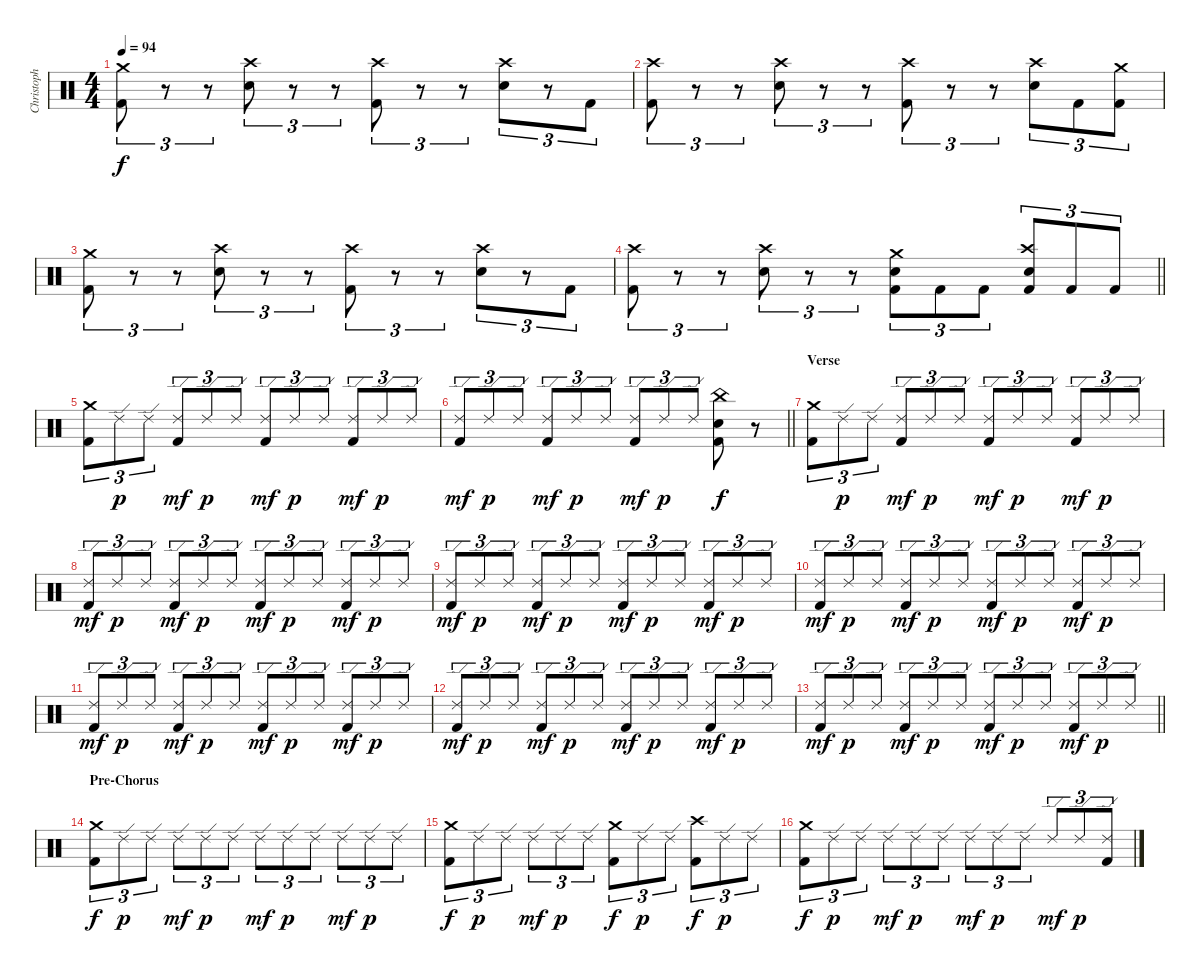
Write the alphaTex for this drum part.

\track ("Christoph Schneider [Drums]" "Christoph ") {instrument percussion}
\staff {score}
\articulation defaults
\ts (4 4)
\tempo 94
\clef neutral
\ks c
("Crash medium (hit)" "Kick (hit) 2").8{tu (3 2) dy f} r.8{tu (3 2)} r.8{tu (3 2)} ("Crash high (hit)" "Electric Snare (hit)").8{tu (3 2)} r.8{tu (3 2)} r.8{tu (3 2)} ("Crash high (hit)" "Kick (hit) 2").8{tu (3 2)} r.8{tu (3 2)} r.8{tu (3 2)} ("Crash high (hit)" "Electric Snare (hit)").8{tu (3 2)} r.8{tu (3 2)} "Kick (hit) 2".8{tu (3 2)} |
("Crash high (hit)" "Kick (hit) 2").8{tu (3 2)} r.8{tu (3 2)} r.8{tu (3 2)} ("Crash high (hit)" "Electric Snare (hit)").8{tu (3 2)} r.8{tu (3 2)} r.8{tu (3 2)} ("Crash high (hit)" "Kick (hit) 2").8{tu (3 2)} r.8{tu (3 2)} r.8{tu (3 2)} ("Crash high (hit)" "Electric Snare (hit)").8{tu (3 2)} "Kick (hit) 2".8{tu (3 2)} ("Crash medium (hit)" "Kick (hit) 2").8{tu (3 2)} |
("Crash medium (hit)" "Kick (hit) 2").8{tu (3 2)} r.8{tu (3 2)} r.8{tu (3 2)} ("Crash high (hit)" "Electric Snare (hit)").8{tu (3 2)} r.8{tu (3 2)} r.8{tu (3 2)} ("Crash high (hit)" "Kick (hit) 2").8{tu (3 2)} r.8{tu (3 2)} r.8{tu (3 2)} ("Crash high (hit)" "Electric Snare (hit)").8{tu (3 2)} r.8{tu (3 2)} "Kick (hit) 2".8{tu (3 2)} |
\barLineRight lightlight
("Crash high (hit)" "Kick (hit) 2").8{tu (3 2)} r.8{tu (3 2)} r.8{tu (3 2)} ("Crash high (hit)" "Electric Snare (hit)").8{tu (3 2)} r.8{tu (3 2)} r.8{tu (3 2)} ("Crash medium (hit)" "Electric Snare (hit)" "Kick (hit) 2").8{tu (3 2)} "Kick (hit) 2".8{tu (3 2)} "Kick (hit) 2".8{tu (3 2)} ("Crash high (hit)" "Electric Snare (hit)" "Kick (hit) 2").8{tu (3 2)} "Kick (hit) 2".8{tu (3 2)} "Kick (hit) 2".8{tu (3 2)} |
\section ("" "")
("Crash medium (hit)" "Kick (hit) 2").8{tu (3 2)} "Ride (edge) 2".8{tu (3 2) dy p} "Ride (edge) 2".8{tu (3 2)} ("Ride (edge) 2" "Kick (hit) 2").8{tu (3 2) dy mf} "Ride (edge) 2".8{tu (3 2) dy p} "Ride (edge) 2".8{tu (3 2)} ("Ride (edge) 2" "Kick (hit) 2").8{tu (3 2) dy mf} "Ride (edge) 2".8{tu (3 2) dy p} "Ride (edge) 2".8{tu (3 2)} ("Ride (edge) 2" "Kick (hit) 2").8{tu (3 2) dy mf} "Ride (edge) 2".8{tu (3 2) dy p} "Ride (edge) 2".8{tu (3 2)} |
\barLineRight lightlight
("Ride (edge) 2" "Kick (hit) 2").8{tu (3 2) dy mf} "Ride (edge) 2".8{tu (3 2) dy p} "Ride (edge) 2".8{tu (3 2)} ("Ride (edge) 2" "Kick (hit) 2").8{tu (3 2) dy mf} "Ride (edge) 2".8{tu (3 2) dy p} "Ride (edge) 2".8{tu (3 2)} ("Ride (edge) 2" "Kick (hit) 2").8{tu (3 2) dy mf} "Ride (edge) 2".8{tu (3 2) dy p} "Ride (edge) 2".8{tu (3 2)} ("China (hit)" "Electric Snare (hit)" "Kick (hit) 2").8{dy f} r.8 |
\section ("" "Verse")
("Crash medium (hit)" "Kick (hit) 2").8{tu (3 2)} "Ride (edge) 2".8{tu (3 2) dy p} "Ride (edge) 2".8{tu (3 2)} ("Ride (edge) 2" "Kick (hit) 2").8{tu (3 2) dy mf} "Ride (edge) 2".8{tu (3 2) dy p} "Ride (edge) 2".8{tu (3 2)} ("Ride (edge) 2" "Kick (hit) 2").8{tu (3 2) dy mf} "Ride (edge) 2".8{tu (3 2) dy p} "Ride (edge) 2".8{tu (3 2)} ("Ride (edge) 2" "Kick (hit) 2").8{tu (3 2) dy mf} "Ride (edge) 2".8{tu (3 2) dy p} "Ride (edge) 2".8{tu (3 2)} |
("Ride (edge) 2" "Kick (hit) 2").8{tu (3 2) dy mf} "Ride (edge) 2".8{tu (3 2) dy p} "Ride (edge) 2".8{tu (3 2)} ("Ride (edge) 2" "Kick (hit) 2").8{tu (3 2) dy mf} "Ride (edge) 2".8{tu (3 2) dy p} "Ride (edge) 2".8{tu (3 2)} ("Ride (edge) 2" "Kick (hit) 2").8{tu (3 2) dy mf} "Ride (edge) 2".8{tu (3 2) dy p} "Ride (edge) 2".8{tu (3 2)} ("Ride (edge) 2" "Kick (hit) 2").8{tu (3 2) dy mf} "Ride (edge) 2".8{tu (3 2) dy p} "Ride (edge) 2".8{tu (3 2)} |
("Ride (edge) 2" "Kick (hit) 2").8{tu (3 2) dy mf} "Ride (edge) 2".8{tu (3 2) dy p} "Ride (edge) 2".8{tu (3 2)} ("Ride (edge) 2" "Kick (hit) 2").8{tu (3 2) dy mf} "Ride (edge) 2".8{tu (3 2) dy p} "Ride (edge) 2".8{tu (3 2)} ("Ride (edge) 2" "Kick (hit) 2").8{tu (3 2) dy mf} "Ride (edge) 2".8{tu (3 2) dy p} "Ride (edge) 2".8{tu (3 2)} ("Ride (edge) 2" "Kick (hit) 2").8{tu (3 2) dy mf} "Ride (edge) 2".8{tu (3 2) dy p} "Ride (edge) 2".8{tu (3 2)} |
("Ride (edge) 2" "Kick (hit) 2").8{tu (3 2) dy mf} "Ride (edge) 2".8{tu (3 2) dy p} "Ride (edge) 2".8{tu (3 2)} ("Ride (edge) 2" "Kick (hit) 2").8{tu (3 2) dy mf} "Ride (edge) 2".8{tu (3 2) dy p} "Ride (edge) 2".8{tu (3 2)} ("Ride (edge) 2" "Kick (hit) 2").8{tu (3 2) dy mf} "Ride (edge) 2".8{tu (3 2) dy p} "Ride (edge) 2".8{tu (3 2)} ("Ride (edge) 2" "Kick (hit) 2").8{tu (3 2) dy mf} "Ride (edge) 2".8{tu (3 2) dy p} "Ride (edge) 2".8{tu (3 2)} |
("Ride (edge) 2" "Kick (hit) 2").8{tu (3 2) dy mf} "Ride (edge) 2".8{tu (3 2) dy p} "Ride (edge) 2".8{tu (3 2)} ("Ride (edge) 2" "Kick (hit) 2").8{tu (3 2) dy mf} "Ride (edge) 2".8{tu (3 2) dy p} "Ride (edge) 2".8{tu (3 2)} ("Ride (edge) 2" "Kick (hit) 2").8{tu (3 2) dy mf} "Ride (edge) 2".8{tu (3 2) dy p} "Ride (edge) 2".8{tu (3 2)} ("Ride (edge) 2" "Kick (hit) 2").8{tu (3 2) dy mf} "Ride (edge) 2".8{tu (3 2) dy p} "Ride (edge) 2".8{tu (3 2)} |
("Ride (edge) 2" "Kick (hit) 2").8{tu (3 2) dy mf} "Ride (edge) 2".8{tu (3 2) dy p} "Ride (edge) 2".8{tu (3 2)} ("Ride (edge) 2" "Kick (hit) 2").8{tu (3 2) dy mf} "Ride (edge) 2".8{tu (3 2) dy p} "Ride (edge) 2".8{tu (3 2)} ("Ride (edge) 2" "Kick (hit) 2").8{tu (3 2) dy mf} "Ride (edge) 2".8{tu (3 2) dy p} "Ride (edge) 2".8{tu (3 2)} ("Ride (edge) 2" "Kick (hit) 2").8{tu (3 2) dy mf} "Ride (edge) 2".8{tu (3 2) dy p} "Ride (edge) 2".8{tu (3 2)} |
\barLineRight lightlight
("Ride (edge) 2" "Kick (hit) 2").8{tu (3 2) dy mf} "Ride (edge) 2".8{tu (3 2) dy p} "Ride (edge) 2".8{tu (3 2)} ("Ride (edge) 2" "Kick (hit) 2").8{tu (3 2) dy mf} "Ride (edge) 2".8{tu (3 2) dy p} "Ride (edge) 2".8{tu (3 2)} ("Ride (edge) 2" "Kick (hit) 2").8{tu (3 2) dy mf} "Ride (edge) 2".8{tu (3 2) dy p} "Ride (edge) 2".8{tu (3 2)} ("Ride (edge) 2" "Kick (hit) 2").8{tu (3 2) dy mf} "Ride (edge) 2".8{tu (3 2) dy p} "Ride (edge) 2".8{tu (3 2)} |
\section ("" "Pre-Chorus")
("Crash medium (hit)" "Kick (hit) 2").8{tu (3 2) dy f} "Ride (edge) 2".8{tu (3 2) dy p} "Ride (edge) 2".8{tu (3 2)} "Ride (edge) 2".8{tu (3 2) dy mf} "Ride (edge) 2".8{tu (3 2) dy p} "Ride (edge) 2".8{tu (3 2)} "Ride (edge) 2".8{tu (3 2) dy mf} "Ride (edge) 2".8{tu (3 2) dy p} "Ride (edge) 2".8{tu (3 2)} "Ride (edge) 2".8{tu (3 2) dy mf} "Ride (edge) 2".8{tu (3 2) dy p} "Ride (edge) 2".8{tu (3 2)} |
("Crash medium (hit)" "Kick (hit) 2").8{tu (3 2) dy f} "Ride (edge) 2".8{tu (3 2) dy p} "Ride (edge) 2".8{tu (3 2)} "Ride (edge) 2".8{tu (3 2) dy mf} "Ride (edge) 2".8{tu (3 2) dy p} "Ride (edge) 2".8{tu (3 2)} ("Crash medium (hit)" "Kick (hit) 2").8{tu (3 2) dy f} "Ride (edge) 2".8{tu (3 2) dy p} "Ride (edge) 2".8{tu (3 2)} ("Crash high (hit)" "Kick (hit) 2").8{tu (3 2) dy f} "Ride (edge) 2".8{tu (3 2) dy p} "Ride (edge) 2".8{tu (3 2)} |
("Crash medium (hit)" "Kick (hit) 2").8{tu (3 2) dy f} "Ride (edge) 2".8{tu (3 2) dy p} "Ride (edge) 2".8{tu (3 2)} "Ride (edge) 2".8{tu (3 2) dy mf} "Ride (edge) 2".8{tu (3 2) dy p} "Ride (edge) 2".8{tu (3 2)} "Ride (edge) 2".8{tu (3 2) dy mf} "Ride (edge) 2".8{tu (3 2) dy p} "Ride (edge) 2".8{tu (3 2)} "Ride (edge) 2".8{tu (3 2) dy mf} "Ride (edge) 2".8{tu (3 2) dy p} ("Ride (edge) 2" "Kick (hit) 2").8{tu (3 2)}
